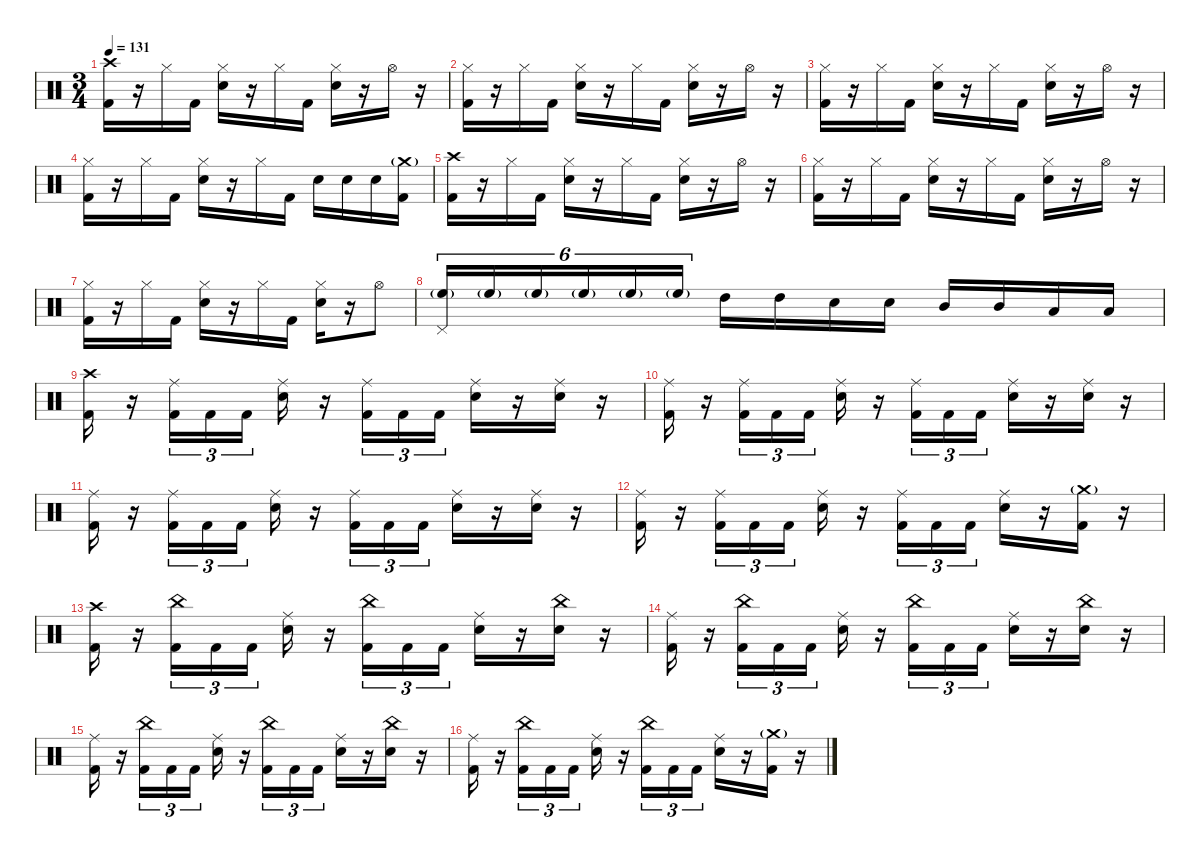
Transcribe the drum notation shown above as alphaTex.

\defaultSystemsLayout 4
\hideDynamics
\bracketExtendMode nobrackets
\singleTrackTrackNamePolicy hidden
\multiTrackTrackNamePolicy hidden
\otherSystemsTrackNameOrientation horizontal
\track ("Drums" "drm.") {defaultSystemsLayout 4 instrument percussion}
\staff {score}
\articulation defaults
\ts (3 4)
\tempo 131
\clef neutral
\ks c
("Kick (hit) 2" "Crash high (hit)").16{dy fff beam Down} r.16{beam Down} "Hi-Hat (closed)".16{dy mp beam Down} "Kick (hit) 2".16{dy fff beam Down} ("Snare (hit) 2" "Hi-Hat (closed)").16{beam Down} r.16{beam Down} "Hi-Hat (closed)".16{dy mp beam Down} "Kick (hit) 2".16{dy fff beam Down} ("Snare (hit) 2" "Hi-Hat (closed)").16{beam Down} r.16{beam Down} "Hi-Hat (open)".16{dy mp beam Down} r.16{beam Down} |
("Kick (hit) 2" "Hi-Hat (closed)").16{dy fff beam Down} r.16{beam Down} "Hi-Hat (closed)".16{dy mp beam Down} "Kick (hit) 2".16{dy fff beam Down} ("Snare (hit) 2" "Hi-Hat (closed)").16{beam Down} r.16{beam Down} "Hi-Hat (closed)".16{dy mp beam Down} "Kick (hit) 2".16{dy fff beam Down} ("Snare (hit) 2" "Hi-Hat (closed)").16{beam Down} r.16{beam Down} "Hi-Hat (open)".16{dy mp beam Down} r.16{beam Down} |
("Kick (hit) 2" "Hi-Hat (closed)").16{dy fff beam Down} r.16{beam Down} "Hi-Hat (closed)".16{dy mp beam Down} "Kick (hit) 2".16{dy fff beam Down} ("Snare (hit) 2" "Hi-Hat (closed)").16{beam Down} r.16{beam Down} "Hi-Hat (closed)".16{dy mp beam Down} "Kick (hit) 2".16{dy fff beam Down} ("Snare (hit) 2" "Hi-Hat (closed)").16{beam Down} r.16{beam Down} "Hi-Hat (open)".16{dy mp beam Down} r.16{beam Down} |
("Kick (hit) 2" "Hi-Hat (closed)").16{dy fff beam Down} r.16{beam Down} "Hi-Hat (closed)".16{dy mp beam Down} "Kick (hit) 2".16{dy fff beam Down} ("Snare (hit) 2" "Hi-Hat (closed)").16{beam Down} r.16{beam Down} "Hi-Hat (closed)".16{dy mp beam Down} "Kick (hit) 2".16{dy fff beam Down} "Snare (hit) 2".16{beam Down} "Snare (hit) 2".16{beam Down} "Snare (hit) 2".16{beam Down} ("Kick (hit) 2" "Crash medium (hit)"{g}).16{beam Down} |
("Kick (hit) 2" "Crash high (hit)").16{beam Down} r.16{beam Down} "Hi-Hat (closed)".16{dy mp beam Down} "Kick (hit) 2".16{dy fff beam Down} ("Snare (hit) 2" "Hi-Hat (closed)").16{beam Down} r.16{beam Down} "Hi-Hat (closed)".16{dy mp beam Down} "Kick (hit) 2".16{dy fff beam Down} ("Snare (hit) 2" "Hi-Hat (closed)").16{beam Down} r.16{beam Down} "Hi-Hat (open)".16{dy mp beam Down} r.16{beam Down} |
("Kick (hit) 2" "Hi-Hat (closed)").16{dy fff beam Down} r.16{beam Down} "Hi-Hat (closed)".16{dy mp beam Down} "Kick (hit) 2".16{dy fff beam Down} ("Snare (hit) 2" "Hi-Hat (closed)").16{beam Down} r.16{beam Down} "Hi-Hat (closed)".16{dy mp beam Down} "Kick (hit) 2".16{dy fff beam Down} ("Snare (hit) 2" "Hi-Hat (closed)").16{beam Down} r.16{beam Down} "Hi-Hat (open)".16{dy mp beam Down} r.16{beam Down} |
("Kick (hit) 2" "Hi-Hat (closed)").16{dy fff beam Down} r.16{beam Down} "Hi-Hat (closed)".16{dy mp beam Down} "Kick (hit) 2".16{dy fff beam Down} ("Snare (hit) 2" "Hi-Hat (closed)").16{beam Down} r.16{beam Down} "Hi-Hat (closed)".16{dy mp beam Down} "Kick (hit) 2".16{dy fff beam Down} ("Snare (hit) 2" "Hi-Hat (closed)").16{beam Down} r.16{beam Down} "Hi-Hat (open)".8{dy mp beam Down} |
("High Floor Tom (hit)"{g} "Pedal Hi-Hat (hit)").16{tu (6 4) beam Up} "High Floor Tom (hit)"{g}.16{tu (6 4) dy f beam Up} "High Floor Tom (hit)"{g}.16{tu (6 4) beam Up} "High Floor Tom (hit)"{g}.16{tu (6 4) dy ff beam Up} "High Floor Tom (hit)"{g}.16{tu (6 4) dy fff beam Up} "High Floor Tom (hit)"{g}.16{tu (6 4) beam Up} "High Tom (hit)".16{beam Down} "High Tom (hit)".16{beam Down} "Snare (hit) 2".16{beam Down} "Snare (hit) 2".16{beam Down} "Mid Tom (hit)".16{beam Up} "Mid Tom (hit)".16{beam Up} "Low Tom (hit)".16{beam Up} "Low Tom (hit)".16{beam Up} |
("Kick (hit) 2" "Crash high (hit)").16{beam Down} r.16{beam Down} ("Kick (hit) 2" "Ride (middle)").16{tu (3 2) beam Down} "Kick (hit) 2".16{tu (3 2) beam Down} "Kick (hit) 2".16{tu (3 2) beam Down} ("Snare (hit) 2" "Ride (middle)").16{beam Down} r.16{beam Down} ("Kick (hit) 2" "Ride (middle)").16{tu (3 2) beam Down} "Kick (hit) 2".16{tu (3 2) beam Down} "Kick (hit) 2".16{tu (3 2) beam Down} ("Snare (hit) 2" "Ride (middle)").16{beam Down} r.16{beam Down} ("Snare (hit) 2" "Ride (middle)").16{beam Down} r.16{beam Down} |
("Kick (hit) 2" "Ride (middle)").16{beam Down} r.16{beam Down} ("Kick (hit) 2" "Ride (middle)").16{tu (3 2) beam Down} "Kick (hit) 2".16{tu (3 2) beam Down} "Kick (hit) 2".16{tu (3 2) beam Down} ("Snare (hit) 2" "Ride (middle)").16{beam Down} r.16{beam Down} ("Kick (hit) 2" "Ride (middle)").16{tu (3 2) beam Down} "Kick (hit) 2".16{tu (3 2) beam Down} "Kick (hit) 2".16{tu (3 2) beam Down} ("Snare (hit) 2" "Ride (middle)").16{beam Down} r.16{beam Down} ("Snare (hit) 2" "Ride (middle)").16{beam Down} r.16{beam Down} |
("Kick (hit) 2" "Ride (middle)").16{beam Down} r.16{beam Down} ("Kick (hit) 2" "Ride (middle)").16{tu (3 2) beam Down} "Kick (hit) 2".16{tu (3 2) beam Down} "Kick (hit) 2".16{tu (3 2) beam Down} ("Snare (hit) 2" "Ride (middle)").16{beam Down} r.16{beam Down} ("Kick (hit) 2" "Ride (middle)").16{tu (3 2) beam Down} "Kick (hit) 2".16{tu (3 2) beam Down} "Kick (hit) 2".16{tu (3 2) beam Down} ("Snare (hit) 2" "Ride (middle)").16{beam Down} r.16{beam Down} ("Snare (hit) 2" "Ride (middle)").16{beam Down} r.16{beam Down} |
("Kick (hit) 2" "Ride (middle)").16{beam Down} r.16{beam Down} ("Kick (hit) 2" "Ride (middle)").16{tu (3 2) beam Down} "Kick (hit) 2".16{tu (3 2) beam Down} "Kick (hit) 2".16{tu (3 2) beam Down} ("Snare (hit) 2" "Ride (middle)").16{beam Down} r.16{beam Down} ("Kick (hit) 2" "Ride (middle)").16{tu (3 2) beam Down} "Kick (hit) 2".16{tu (3 2) beam Down} "Kick (hit) 2".16{tu (3 2) beam Down} ("Snare (hit) 2" "Ride (middle)").16{beam Down} r.16{beam Down} ("Kick (hit) 2" "Crash medium (hit)"{g}).16{beam Down} r.16{beam Down} |
("Kick (hit) 2" "Crash high (hit)").16{beam Down} r.16{beam Down} ("Kick (hit) 2" "China (hit)").16{tu (3 2) beam Down} "Kick (hit) 2".16{tu (3 2) beam Down} "Kick (hit) 2".16{tu (3 2) beam Down} ("Snare (hit) 2" "Ride (middle)").16{beam Down} r.16{beam Down} ("Kick (hit) 2" "China (hit)").16{tu (3 2) beam Down} "Kick (hit) 2".16{tu (3 2) beam Down} "Kick (hit) 2".16{tu (3 2) beam Down} ("Snare (hit) 2" "Ride (middle)").16{beam Down} r.16{beam Down} ("Snare (hit) 2" "China (hit)").16{beam Down} r.16{beam Down} |
("Kick (hit) 2" "Ride (middle)").16{beam Down} r.16{beam Down} ("Kick (hit) 2" "China (hit)").16{tu (3 2) beam Down} "Kick (hit) 2".16{tu (3 2) beam Down} "Kick (hit) 2".16{tu (3 2) beam Down} ("Snare (hit) 2" "Ride (middle)").16{beam Down} r.16{beam Down} ("Kick (hit) 2" "China (hit)").16{tu (3 2) beam Down} "Kick (hit) 2".16{tu (3 2) beam Down} "Kick (hit) 2".16{tu (3 2) beam Down} ("Snare (hit) 2" "Ride (middle)").16{beam Down} r.16{beam Down} ("Snare (hit) 2" "China (hit)").16{beam Down} r.16{beam Down} |
("Kick (hit) 2" "Ride (middle)").16{beam Down} r.16{beam Down} ("Kick (hit) 2" "China (hit)").16{tu (3 2) beam Down} "Kick (hit) 2".16{tu (3 2) beam Down} "Kick (hit) 2".16{tu (3 2) beam Down} ("Snare (hit) 2" "Ride (middle)").16{beam Down} r.16{beam Down} ("Kick (hit) 2" "China (hit)").16{tu (3 2) beam Down} "Kick (hit) 2".16{tu (3 2) beam Down} "Kick (hit) 2".16{tu (3 2) beam Down} ("Snare (hit) 2" "Ride (middle)").16{beam Down} r.16{beam Down} ("Snare (hit) 2" "China (hit)").16{beam Down} r.16{beam Down} |
("Kick (hit) 2" "Ride (middle)").16{beam Down} r.16{beam Down} ("Kick (hit) 2" "China (hit)").16{tu (3 2) beam Down} "Kick (hit) 2".16{tu (3 2) beam Down} "Kick (hit) 2".16{tu (3 2) beam Down} ("Snare (hit) 2" "Ride (middle)").16{beam Down} r.16{beam Down} ("Kick (hit) 2" "China (hit)").16{tu (3 2) beam Down} "Kick (hit) 2".16{tu (3 2) beam Down} "Kick (hit) 2".16{tu (3 2) beam Down} ("Snare (hit) 2" "Ride (middle)").16{beam Down} r.16{beam Down} ("Kick (hit) 2" "Crash medium (hit)"{g}).16{beam Down} r.16{beam Down}
